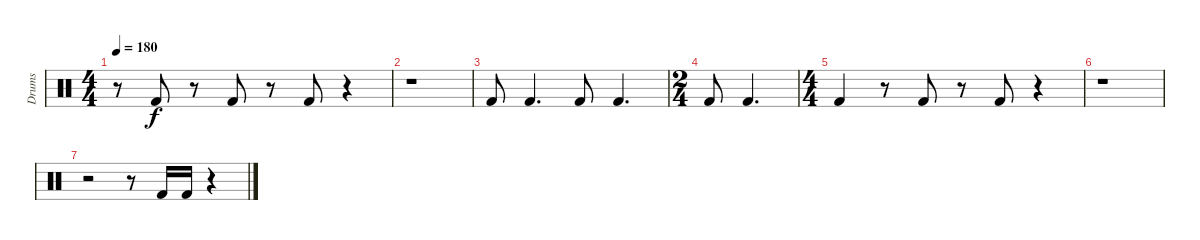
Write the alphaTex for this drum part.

\track ("Drums" "Drums") {instrument percussion}
\staff {score}
\articulation defaults
\ts (4 4)
\tempo 180
\clef neutral
\ks c
r.8{dy f} "Kick (hit) 2".8 r.8 "Kick (hit) 2".8 r.8 "Kick (hit) 2".8 r.4 |
r.1 |
"Kick (hit) 2".8 "Kick (hit) 2".4{d} "Kick (hit) 2".8 "Kick (hit) 2".4{d} |
\ts (2 4)
"Kick (hit) 2".8 "Kick (hit) 2".4{d} |
\ts (4 4)
"Kick (hit) 2".4 r.8 "Kick (hit) 2".8 r.8 "Kick (hit) 2".8 r.4 |
r.1 |
r.2 r.8 "Kick (hit) 2".16 "Kick (hit) 2".16 r.4
